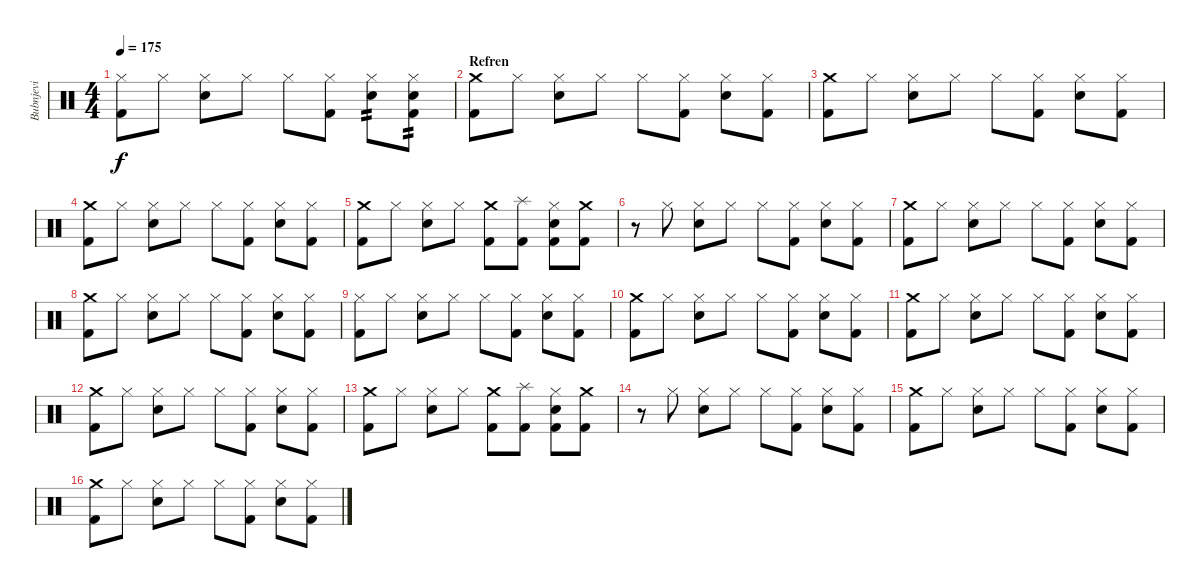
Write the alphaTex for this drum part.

\track ("Bubnjevi" "Bubnjevi") {instrument percussion}
\staff {score}
\articulation defaults
\ts (4 4)
\tempo 175
\clef neutral
\ks c
("Hi-Hat (closed)" "Kick (hit) 2").8{dy f} "Hi-Hat (closed)".8 ("Electric Snare (hit)" "Hi-Hat (closed)").8 "Hi-Hat (closed)".8 "Hi-Hat (closed)".8 ("Hi-Hat (closed)" "Kick (hit) 2").8 ("Electric Snare (hit)" "Hi-Hat (closed)").8{tp 2} ("Electric Snare (hit)" "Hi-Hat (closed)" "Kick (hit) 2").8{tp 2} |
\section ("" "Refren")
("Crash medium (hit)" "Kick (hit) 2").8 "Hi-Hat (closed)".8 ("Electric Snare (hit)" "Hi-Hat (closed)").8 "Hi-Hat (closed)".8 "Hi-Hat (closed)".8 ("Hi-Hat (closed)" "Kick (hit) 2").8 ("Electric Snare (hit)" "Hi-Hat (closed)").8 ("Hi-Hat (closed)" "Kick (hit) 2").8 |
("Crash medium (hit)" "Kick (hit) 2").8 "Hi-Hat (closed)".8 ("Electric Snare (hit)" "Hi-Hat (closed)").8 "Hi-Hat (closed)".8 "Hi-Hat (closed)".8 ("Hi-Hat (closed)" "Kick (hit) 2").8 ("Electric Snare (hit)" "Hi-Hat (closed)").8 ("Hi-Hat (closed)" "Kick (hit) 2").8 |
("Crash medium (hit)" "Kick (hit) 2").8 "Hi-Hat (closed)".8 ("Electric Snare (hit)" "Hi-Hat (closed)").8 "Hi-Hat (closed)".8 "Hi-Hat (closed)".8 ("Hi-Hat (closed)" "Kick (hit) 2").8 ("Electric Snare (hit)" "Hi-Hat (closed)").8 ("Hi-Hat (closed)" "Kick (hit) 2").8 |
("Crash medium (hit)" "Kick (hit) 2").8 "Hi-Hat (closed)".8 ("Electric Snare (hit)" "Hi-Hat (closed)").8 "Hi-Hat (closed)".8 ("Crash medium (hit)" "Kick (hit) 2").8 ("Splash (hit)" "Kick (hit) 2").8 ("Electric Snare (hit)" "Hi-Hat (closed)" "Kick (hit) 2").8 ("Crash medium (hit)" "Kick (hit) 2").8 |
r.8 "Hi-Hat (closed)".8 ("Electric Snare (hit)" "Hi-Hat (closed)").8 "Hi-Hat (closed)".8 "Hi-Hat (closed)".8 ("Hi-Hat (closed)" "Kick (hit) 2").8 ("Electric Snare (hit)" "Hi-Hat (closed)").8 ("Hi-Hat (closed)" "Kick (hit) 2").8 |
("Crash medium (hit)" "Kick (hit) 2").8 "Hi-Hat (closed)".8 ("Electric Snare (hit)" "Hi-Hat (closed)").8 "Hi-Hat (closed)".8 "Hi-Hat (closed)".8 ("Hi-Hat (closed)" "Kick (hit) 2").8 ("Electric Snare (hit)" "Hi-Hat (closed)").8 ("Hi-Hat (closed)" "Kick (hit) 2").8 |
("Crash medium (hit)" "Kick (hit) 2").8 "Hi-Hat (closed)".8 ("Electric Snare (hit)" "Hi-Hat (closed)").8 "Hi-Hat (closed)".8 "Hi-Hat (closed)".8 ("Hi-Hat (closed)" "Kick (hit) 2").8 ("Electric Snare (hit)" "Hi-Hat (closed)").8 ("Hi-Hat (closed)" "Kick (hit) 2").8 |
("Hi-Hat (closed)" "Kick (hit) 2").8 "Hi-Hat (closed)".8 ("Electric Snare (hit)" "Hi-Hat (closed)").8 "Hi-Hat (closed)".8 "Hi-Hat (closed)".8 ("Hi-Hat (closed)" "Kick (hit) 2").8 ("Electric Snare (hit)" "Hi-Hat (closed)").8 ("Hi-Hat (closed)" "Kick (hit) 2").8 |
("Crash medium (hit)" "Kick (hit) 2").8 "Hi-Hat (closed)".8 ("Electric Snare (hit)" "Hi-Hat (closed)").8 "Hi-Hat (closed)".8 "Hi-Hat (closed)".8 ("Hi-Hat (closed)" "Kick (hit) 2").8 ("Electric Snare (hit)" "Hi-Hat (closed)").8 ("Hi-Hat (closed)" "Kick (hit) 2").8 |
("Crash medium (hit)" "Kick (hit) 2").8 "Hi-Hat (closed)".8 ("Electric Snare (hit)" "Hi-Hat (closed)").8 "Hi-Hat (closed)".8 "Hi-Hat (closed)".8 ("Hi-Hat (closed)" "Kick (hit) 2").8 ("Electric Snare (hit)" "Hi-Hat (closed)").8 ("Hi-Hat (closed)" "Kick (hit) 2").8 |
("Crash medium (hit)" "Kick (hit) 2").8 "Hi-Hat (closed)".8 ("Electric Snare (hit)" "Hi-Hat (closed)").8 "Hi-Hat (closed)".8 "Hi-Hat (closed)".8 ("Hi-Hat (closed)" "Kick (hit) 2").8 ("Electric Snare (hit)" "Hi-Hat (closed)").8 ("Hi-Hat (closed)" "Kick (hit) 2").8 |
("Crash medium (hit)" "Kick (hit) 2").8 "Hi-Hat (closed)".8 ("Electric Snare (hit)" "Hi-Hat (closed)").8 "Hi-Hat (closed)".8 ("Crash medium (hit)" "Kick (hit) 2").8 ("Splash (hit)" "Kick (hit) 2").8 ("Electric Snare (hit)" "Hi-Hat (closed)" "Kick (hit) 2").8 ("Crash medium (hit)" "Kick (hit) 2").8 |
r.8 "Hi-Hat (closed)".8 ("Electric Snare (hit)" "Hi-Hat (closed)").8 "Hi-Hat (closed)".8 "Hi-Hat (closed)".8 ("Hi-Hat (closed)" "Kick (hit) 2").8 ("Electric Snare (hit)" "Hi-Hat (closed)").8 ("Hi-Hat (closed)" "Kick (hit) 2").8 |
("Crash medium (hit)" "Kick (hit) 2").8 "Hi-Hat (closed)".8 ("Electric Snare (hit)" "Hi-Hat (closed)").8 "Hi-Hat (closed)".8 "Hi-Hat (closed)".8 ("Hi-Hat (closed)" "Kick (hit) 2").8 ("Electric Snare (hit)" "Hi-Hat (closed)").8 ("Hi-Hat (closed)" "Kick (hit) 2").8 |
("Crash medium (hit)" "Kick (hit) 2").8 "Hi-Hat (closed)".8 ("Electric Snare (hit)" "Hi-Hat (closed)").8 "Hi-Hat (closed)".8 "Hi-Hat (closed)".8 ("Hi-Hat (closed)" "Kick (hit) 2").8 ("Electric Snare (hit)" "Hi-Hat (closed)").8 ("Hi-Hat (closed)" "Kick (hit) 2").8
